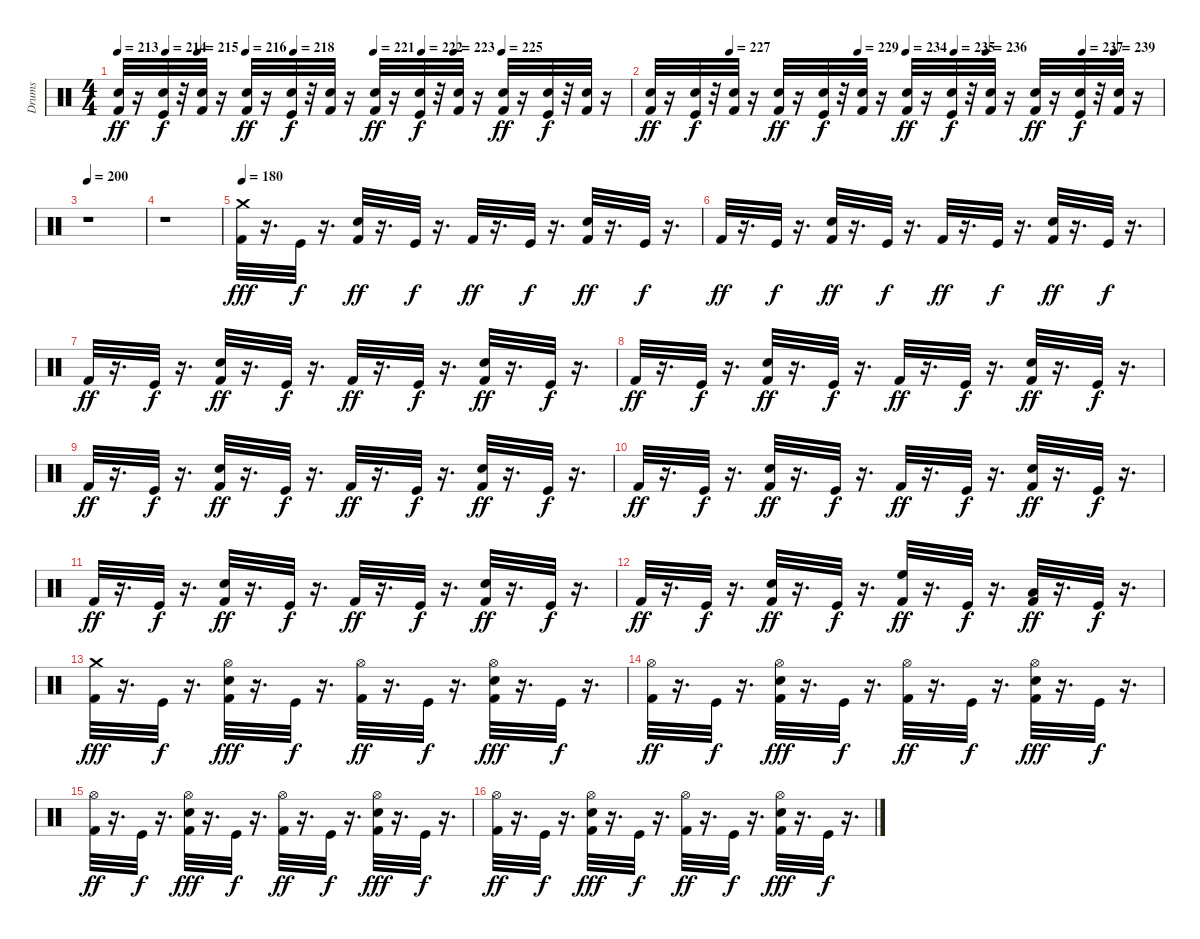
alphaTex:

\track ("Drums" "Drums") {instrument percussion}
\staff {score}
\articulation defaults
\ts (4 4)
\tempo 213
\tempo (214 0.09375)
\tempo (215 0.15625)
\tempo (216 0.25)
\tempo (218 0.34375)
\tempo (221 0.5)
\tempo (222 0.59375)
\tempo (223 0.65625)
\tempo (225 0.75)
\clef neutral
\ks c
("Snare (hit) 2" "Kick (hit) 2").32{dy ff} r.16 ("Snare (hit) 2" "Kick (hit)").32{dy f} r.32 ("Snare (hit) 2" "Kick (hit) 2").32 r.16 ("Snare (hit) 2" "Kick (hit) 2").32{dy ff} r.16 ("Snare (hit) 2" "Kick (hit)").32{dy f} r.32 ("Snare (hit) 2" "Kick (hit) 2").32 r.16 ("Snare (hit) 2" "Kick (hit) 2").32{dy ff} r.16 ("Snare (hit) 2" "Kick (hit)").32{dy f} r.32 ("Snare (hit) 2" "Kick (hit) 2").32 r.16 ("Snare (hit) 2" "Kick (hit) 2").32{dy ff} r.16 ("Snare (hit) 2" "Kick (hit)").32{dy f} r.32 ("Snare (hit) 2" "Kick (hit) 2").32 r.16 |
\tempo (227 0.15625)
\tempo (229 0.40625)
\tempo (234 0.5)
\tempo (235 0.59375)
\tempo (236 0.65625)
\tempo (237 0.84375)
\tempo (239 0.90625)
("Snare (hit) 2" "Kick (hit) 2").32{dy ff} r.16 ("Snare (hit) 2" "Kick (hit)").32{dy f} r.32 ("Snare (hit) 2" "Kick (hit) 2").32 r.16 ("Snare (hit) 2" "Kick (hit) 2").32{dy ff} r.16 ("Snare (hit) 2" "Kick (hit)").32{dy f} r.32 ("Snare (hit) 2" "Kick (hit) 2").32 r.16 ("Snare (hit) 2" "Kick (hit) 2").32{dy ff} r.16 ("Snare (hit) 2" "Kick (hit)").32{dy f} r.32 ("Snare (hit) 2" "Kick (hit) 2").32 r.16 ("Snare (hit) 2" "Kick (hit) 2").32{dy ff} r.16 ("Snare (hit) 2" "Kick (hit)").32{dy f} r.32 ("Snare (hit) 2" "Kick (hit) 2").32 r.16 |
\tempo 200
r.1 |
r.1 |
\tempo 180
("Kick (hit) 2" "Crash medium (hit)").32{dy fff} r.16{d} "Kick (hit)".32{dy f} r.16{d} ("Snare (hit) 2" "Kick (hit) 2").32{dy ff} r.16{d} "Kick (hit)".32{dy f} r.16{d} "Kick (hit) 2".32{dy ff} r.16{d} "Kick (hit)".32{dy f} r.16{d} ("Snare (hit) 2" "Kick (hit) 2").32{dy ff} r.16{d} "Kick (hit)".32{dy f} r.16{d} |
"Kick (hit) 2".32{dy ff} r.16{d} "Kick (hit)".32{dy f} r.16{d} ("Snare (hit) 2" "Kick (hit) 2").32{dy ff} r.16{d} "Kick (hit)".32{dy f} r.16{d} "Kick (hit) 2".32{dy ff} r.16{d} "Kick (hit)".32{dy f} r.16{d} ("Snare (hit) 2" "Kick (hit) 2").32{dy ff} r.16{d} "Kick (hit)".32{dy f} r.16{d} |
"Kick (hit) 2".32{dy ff} r.16{d} "Kick (hit)".32{dy f} r.16{d} ("Snare (hit) 2" "Kick (hit) 2").32{dy ff} r.16{d} "Kick (hit)".32{dy f} r.16{d} "Kick (hit) 2".32{dy ff} r.16{d} "Kick (hit)".32{dy f} r.16{d} ("Snare (hit) 2" "Kick (hit) 2").32{dy ff} r.16{d} "Kick (hit)".32{dy f} r.16{d} |
"Kick (hit) 2".32{dy ff} r.16{d} "Kick (hit)".32{dy f} r.16{d} ("Snare (hit) 2" "Kick (hit) 2").32{dy ff} r.16{d} "Kick (hit)".32{dy f} r.16{d} "Kick (hit) 2".32{dy ff} r.16{d} "Kick (hit)".32{dy f} r.16{d} ("Snare (hit) 2" "Kick (hit) 2").32{dy ff} r.16{d} "Kick (hit)".32{dy f} r.16{d} |
"Kick (hit) 2".32{dy ff} r.16{d} "Kick (hit)".32{dy f} r.16{d} ("Snare (hit) 2" "Kick (hit) 2").32{dy ff} r.16{d} "Kick (hit)".32{dy f} r.16{d} "Kick (hit) 2".32{dy ff} r.16{d} "Kick (hit)".32{dy f} r.16{d} ("Snare (hit) 2" "Kick (hit) 2").32{dy ff} r.16{d} "Kick (hit)".32{dy f} r.16{d} |
"Kick (hit) 2".32{dy ff} r.16{d} "Kick (hit)".32{dy f} r.16{d} ("Snare (hit) 2" "Kick (hit) 2").32{dy ff} r.16{d} "Kick (hit)".32{dy f} r.16{d} "Kick (hit) 2".32{dy ff} r.16{d} "Kick (hit)".32{dy f} r.16{d} ("Snare (hit) 2" "Kick (hit) 2").32{dy ff} r.16{d} "Kick (hit)".32{dy f} r.16{d} |
"Kick (hit) 2".32{dy ff} r.16{d} "Kick (hit)".32{dy f} r.16{d} ("Snare (hit) 2" "Kick (hit) 2").32{dy ff} r.16{d} "Kick (hit)".32{dy f} r.16{d} "Kick (hit) 2".32{dy ff} r.16{d} "Kick (hit)".32{dy f} r.16{d} ("Snare (hit) 2" "Kick (hit) 2").32{dy ff} r.16{d} "Kick (hit)".32{dy f} r.16{d} |
"Kick (hit) 2".32{dy ff} r.16{d} "Kick (hit)".32{dy f} r.16{d} ("Snare (hit) 2" "Kick (hit) 2").32{dy ff} r.16{d} "Kick (hit)".32{dy f} r.16{d} ("High Floor Tom (hit)" "Kick (hit) 2").32{dy ff} r.16{d} "Kick (hit)".32{dy f} r.16{d} ("Low Floor Tom (hit)" "Kick (hit) 2").32{dy ff} r.16{d} "Kick (hit)".32{dy f} r.16{d} |
("Kick (hit) 2" "Crash medium (hit)").32{dy fff} r.16{d} "Kick (hit)".32{dy f} r.16{d} ("Snare (hit) 2" "Kick (hit) 2" "Hi-Hat (open)").32{dy fff} r.16{d} "Kick (hit)".32{dy f} r.16{d} ("Kick (hit) 2" "Hi-Hat (open)").32{dy ff} r.16{d} "Kick (hit)".32{dy f} r.16{d} ("Snare (hit) 2" "Kick (hit) 2" "Hi-Hat (open)").32{dy fff} r.16{d} "Kick (hit)".32{dy f} r.16{d} |
("Kick (hit) 2" "Hi-Hat (open)").32{dy ff} r.16{d} "Kick (hit)".32{dy f} r.16{d} ("Snare (hit) 2" "Kick (hit) 2" "Hi-Hat (open)").32{dy fff} r.16{d} "Kick (hit)".32{dy f} r.16{d} ("Kick (hit) 2" "Hi-Hat (open)").32{dy ff} r.16{d} "Kick (hit)".32{dy f} r.16{d} ("Snare (hit) 2" "Kick (hit) 2" "Hi-Hat (open)").32{dy fff} r.16{d} "Kick (hit)".32{dy f} r.16{d} |
("Kick (hit) 2" "Hi-Hat (open)").32{dy ff} r.16{d} "Kick (hit)".32{dy f} r.16{d} ("Snare (hit) 2" "Kick (hit) 2" "Hi-Hat (open)").32{dy fff} r.16{d} "Kick (hit)".32{dy f} r.16{d} ("Kick (hit) 2" "Hi-Hat (open)").32{dy ff} r.16{d} "Kick (hit)".32{dy f} r.16{d} ("Snare (hit) 2" "Kick (hit) 2" "Hi-Hat (open)").32{dy fff} r.16{d} "Kick (hit)".32{dy f} r.16{d} |
("Kick (hit) 2" "Hi-Hat (open)").32{dy ff} r.16{d} "Kick (hit)".32{dy f} r.16{d} ("Snare (hit) 2" "Kick (hit) 2" "Hi-Hat (open)").32{dy fff} r.16{d} "Kick (hit)".32{dy f} r.16{d} ("Kick (hit) 2" "Hi-Hat (open)").32{dy ff} r.16{d} "Kick (hit)".32{dy f} r.16{d} ("Snare (hit) 2" "Kick (hit) 2" "Hi-Hat (open)").32{dy fff} r.16{d} "Kick (hit)".32{dy f} r.16{d}
